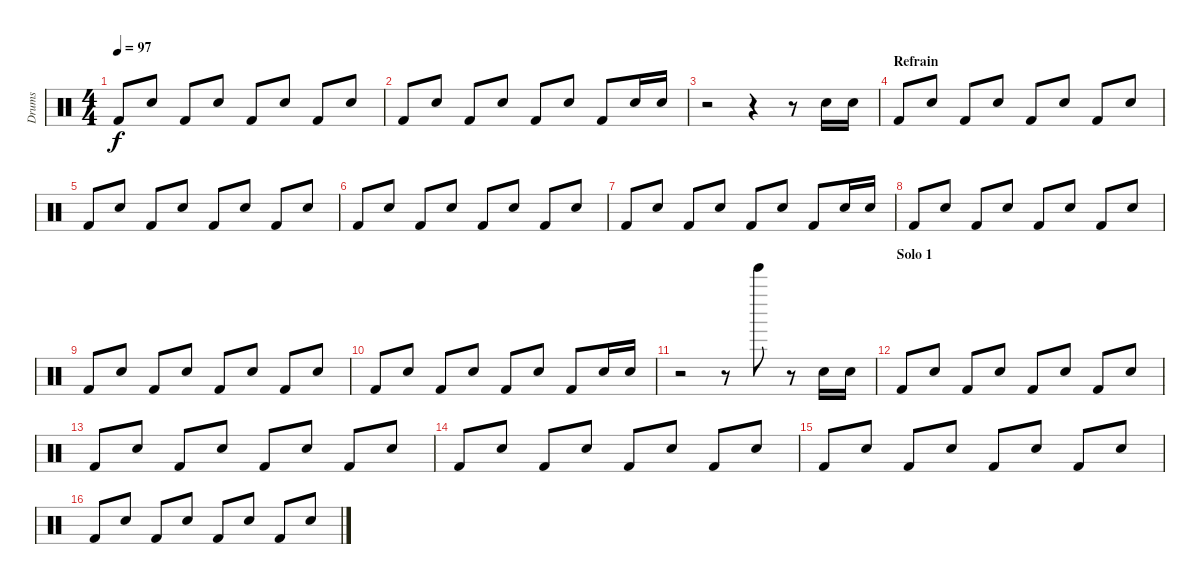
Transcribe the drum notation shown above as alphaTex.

\track ("Drums" "Drums") {instrument percussion}
\staff {score}
\articulation defaults
\ts (4 4)
\tempo 97
\clef neutral
\ks c "Kick (hit) 2".8{dy f} "Electric Snare (hit)".8 "Kick (hit) 2".8 "Electric Snare (hit)".8 "Kick (hit) 2".8 "Electric Snare (hit)".8 "Kick (hit) 2".8 "Electric Snare (hit)".8
|
"Kick (hit) 2".8 "Electric Snare (hit)".8 "Kick (hit) 2".8 "Electric Snare (hit)".8 "Kick (hit) 2".8 "Electric Snare (hit)".8 "Kick (hit) 2".8 "Electric Snare (hit)".16 "Electric Snare (hit)".16 |
r.2 r.4 r.8 "Electric Snare (hit)".16 "Electric Snare (hit)".16 |
\section ("" "Refrain")
"Kick (hit) 2".8 "Electric Snare (hit)".8 "Kick (hit) 2".8 "Electric Snare (hit)".8 "Kick (hit) 2".8 "Electric Snare (hit)".8 "Kick (hit) 2".8 "Electric Snare (hit)".8 |
"Kick (hit) 2".8 "Electric Snare (hit)".8 "Kick (hit) 2".8 "Electric Snare (hit)".8 "Kick (hit) 2".8 "Electric Snare (hit)".8 "Kick (hit) 2".8 "Electric Snare (hit)".8 |
"Kick (hit) 2".8 "Electric Snare (hit)".8 "Kick (hit) 2".8 "Electric Snare (hit)".8 "Kick (hit) 2".8 "Electric Snare (hit)".8 "Kick (hit) 2".8 "Electric Snare (hit)".8 |
"Kick (hit) 2".8 "Electric Snare (hit)".8 "Kick (hit) 2".8 "Electric Snare (hit)".8 "Kick (hit) 2".8 "Electric Snare (hit)".8 "Kick (hit) 2".8 "Electric Snare (hit)".16 "Electric Snare (hit)".16 |
"Kick (hit) 2".8 "Electric Snare (hit)".8 "Kick (hit) 2".8 "Electric Snare (hit)".8 "Kick (hit) 2".8 "Electric Snare (hit)".8 "Kick (hit) 2".8 "Electric Snare (hit)".8 |
"Kick (hit) 2".8 "Electric Snare (hit)".8 "Kick (hit) 2".8 "Electric Snare (hit)".8 "Kick (hit) 2".8 "Electric Snare (hit)".8 "Kick (hit) 2".8 "Electric Snare (hit)".8 |
"Kick (hit) 2".8 "Electric Snare (hit)".8 "Kick (hit) 2".8 "Electric Snare (hit)".8 "Kick (hit) 2".8 "Electric Snare (hit)".8 "Kick (hit) 2".8 "Electric Snare (hit)".16 "Electric Snare (hit)".16 |
r.2 r.8 "Tinkle Bell (hit)".8 r.8 "Electric Snare (hit)".16 "Electric Snare (hit)".16 |
\section ("" "Solo 1")
"Kick (hit) 2".8 "Electric Snare (hit)".8 "Kick (hit) 2".8 "Electric Snare (hit)".8 "Kick (hit) 2".8 "Electric Snare (hit)".8 "Kick (hit) 2".8 "Electric Snare (hit)".8 |
"Kick (hit) 2".8 "Electric Snare (hit)".8 "Kick (hit) 2".8 "Electric Snare (hit)".8 "Kick (hit) 2".8 "Electric Snare (hit)".8 "Kick (hit) 2".8 "Electric Snare (hit)".8 |
"Kick (hit) 2".8 "Electric Snare (hit)".8 "Kick (hit) 2".8 "Electric Snare (hit)".8 "Kick (hit) 2".8 "Electric Snare (hit)".8 "Kick (hit) 2".8 "Electric Snare (hit)".8 |
"Kick (hit) 2".8 "Electric Snare (hit)".8 "Kick (hit) 2".8 "Electric Snare (hit)".8 "Kick (hit) 2".8 "Electric Snare (hit)".8 "Kick (hit) 2".8 "Electric Snare (hit)".8 |
"Kick (hit) 2".8 "Electric Snare (hit)".8 "Kick (hit) 2".8 "Electric Snare (hit)".8 "Kick (hit) 2".8 "Electric Snare (hit)".8 "Kick (hit) 2".8 "Electric Snare (hit)".8
